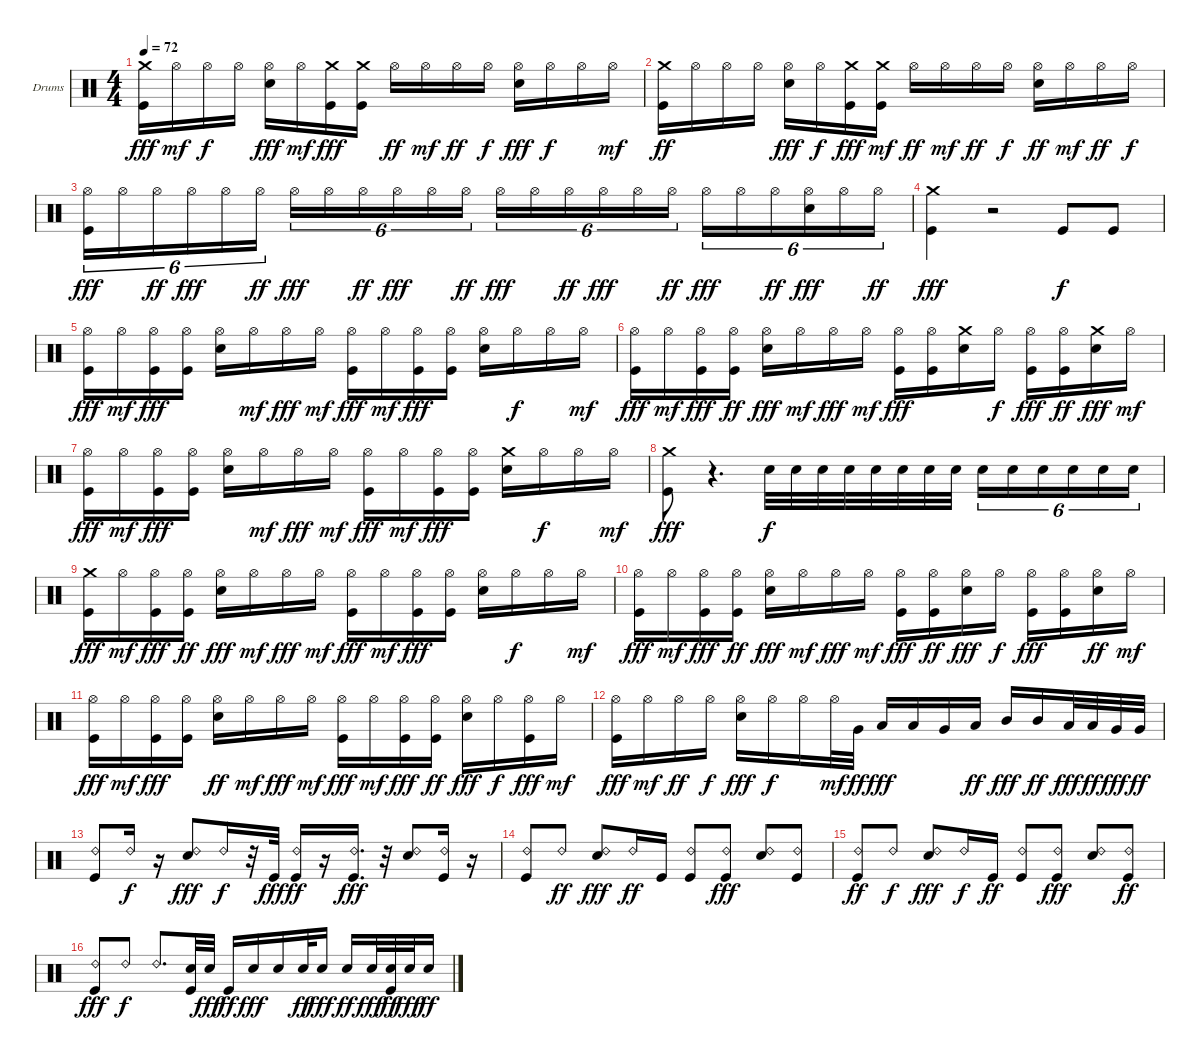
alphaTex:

\bracketExtendMode groupsimilarinstruments
\firstSystemTrackNameOrientation horizontal
\otherSystemsTrackNameOrientation horizontal
\track ("Drumkit" "Drums") {instrument percussion}
\staff {score}
\articulation defaults
\ts (4 4)
\tempo 72
\clef neutral
\ks c
("Kick (hit)" "Crash medium (hit)").16{dy fff} "Hi-Hat (open)".16{dy mf} "Hi-Hat (open)".16{dy f} "Hi-Hat (open)".16 ("Snare (hit) 2" "Hi-Hat (open)").16{dy fff} "Hi-Hat (open)".16{dy mf} ("Kick (hit)" "Crash medium (hit)").16{dy fff} ("Kick (hit)" "Crash medium (hit)").16 "Hi-Hat (open)".16{dy ff} "Hi-Hat (open)".16{dy mf} "Hi-Hat (open)".16{dy ff} "Hi-Hat (open)".16{dy f} ("Snare (hit) 2" "Hi-Hat (open)").16{dy fff} "Hi-Hat (open)".16{dy f} "Hi-Hat (open)".16 "Hi-Hat (open)".16{dy mf} |
("Crash medium (hit)" "Kick (hit)").16{dy ff} "Hi-Hat (open)".16 "Hi-Hat (open)".16 "Hi-Hat (open)".16 ("Snare (hit) 2" "Hi-Hat (open)").16{dy fff} "Hi-Hat (open)".16{dy f} ("Kick (hit)" "Crash medium (hit)").16{dy fff} ("Crash medium (hit)" "Kick (hit)").16{dy mf} "Hi-Hat (open)".16{dy ff} "Hi-Hat (open)".16{dy mf} "Hi-Hat (open)".16{dy ff} "Hi-Hat (open)".16{dy f} ("Hi-Hat (open)" "Snare (hit) 2").16{dy ff} "Hi-Hat (open)".16{dy mf} "Hi-Hat (open)".16{dy ff} "Hi-Hat (open)".16{dy f} |
("Kick (hit)" "Hi-Hat (open)").16{tu (6 4) dy fff} "Hi-Hat (open)".16{tu (6 4)} "Hi-Hat (open)".16{tu (6 4) dy ff} "Hi-Hat (open)".16{tu (6 4) dy fff} "Hi-Hat (open)".16{tu (6 4)} "Hi-Hat (open)".16{tu (6 4) dy ff} "Hi-Hat (open)".16{tu (6 4) dy fff} "Hi-Hat (open)".16{tu (6 4)} "Hi-Hat (open)".16{tu (6 4) dy ff} "Hi-Hat (open)".16{tu (6 4) dy fff} "Hi-Hat (open)".16{tu (6 4)} "Hi-Hat (open)".16{tu (6 4) dy ff} "Hi-Hat (open)".16{tu (6 4) dy fff} "Hi-Hat (open)".16{tu (6 4)} "Hi-Hat (open)".16{tu (6 4) dy ff} "Hi-Hat (open)".16{tu (6 4) dy fff} "Hi-Hat (open)".16{tu (6 4)} "Hi-Hat (open)".16{tu (6 4) dy ff} "Hi-Hat (open)".16{tu (6 4) dy fff} "Hi-Hat (open)".16{tu (6 4)} "Hi-Hat (open)".16{tu (6 4) dy ff} ("Hi-Hat (open)" "Snare (hit) 2").16{tu (6 4) dy fff} "Hi-Hat (open)".16{tu (6 4)} "Hi-Hat (open)".16{tu (6 4) dy ff} |
("Kick (hit)" "Crash medium (hit)").4{dy fff} r.2 "Kick (hit)".8{dy f} "Kick (hit)".8 |
("Kick (hit)" "Hi-Hat (open)").16{dy fff} "Hi-Hat (open)".16{dy mf} ("Kick (hit)" "Hi-Hat (open)").16{dy fff} ("Kick (hit)" "Hi-Hat (open)").16 ("Snare (hit) 2" "Hi-Hat (open)").16 "Hi-Hat (open)".16{dy mf} "Hi-Hat (open)".16{dy fff} "Hi-Hat (open)".16{dy mf} ("Kick (hit)" "Hi-Hat (open)").16{dy fff} "Hi-Hat (open)".16{dy mf} ("Kick (hit)" "Hi-Hat (open)").16{dy fff} ("Kick (hit)" "Hi-Hat (open)").16 ("Snare (hit) 2" "Hi-Hat (open)").16 "Hi-Hat (open)".16{dy f} "Hi-Hat (open)".16 "Hi-Hat (open)".16{dy mf} |
("Kick (hit)" "Hi-Hat (open)").16{dy fff} "Hi-Hat (open)".16{dy mf} ("Kick (hit)" "Hi-Hat (open)").16{dy fff} ("Kick (hit)" "Hi-Hat (open)").16{dy ff} ("Snare (hit) 2" "Hi-Hat (open)").16{dy fff} "Hi-Hat (open)".16{dy mf} "Hi-Hat (open)".16{dy fff} "Hi-Hat (open)".16{dy mf} ("Kick (hit)" "Hi-Hat (open)").16{dy fff} ("Kick (hit)" "Hi-Hat (open)").16 ("Snare (hit) 2" "Crash medium (hit)").16 "Hi-Hat (open)".16{dy f} ("Kick (hit)" "Hi-Hat (open)").16{dy fff} ("Kick (hit)" "Hi-Hat (open)").16{dy ff} ("Snare (hit) 2" "Crash medium (hit)").16{dy fff} "Hi-Hat (open)".16{dy mf} |
("Kick (hit)" "Hi-Hat (open)").16{dy fff} "Hi-Hat (open)".16{dy mf} ("Kick (hit)" "Hi-Hat (open)").16{dy fff} ("Kick (hit)" "Hi-Hat (open)").16 ("Snare (hit) 2" "Hi-Hat (open)").16 "Hi-Hat (open)".16{dy mf} "Hi-Hat (open)".16{dy fff} "Hi-Hat (open)".16{dy mf} ("Kick (hit)" "Hi-Hat (open)").16{dy fff} "Hi-Hat (open)".16{dy mf} ("Kick (hit)" "Hi-Hat (open)").16{dy fff} ("Kick (hit)" "Hi-Hat (open)").16 ("Snare (hit) 2" "Crash medium (hit)").16 "Hi-Hat (open)".16{dy f} "Hi-Hat (open)".16 "Hi-Hat (open)".16{dy mf} |
("Kick (hit)" "Crash medium (hit)").8{dy fff} r.4{d} "Snare (hit) 2".32{dy f} "Snare (hit) 2".32 "Snare (hit) 2".32 "Snare (hit) 2".32 "Snare (hit) 2".32 "Snare (hit) 2".32 "Snare (hit) 2".32 "Snare (hit) 2".32 "Snare (hit) 2".16{tu (6 4)} "Snare (hit) 2".16{tu (6 4)} "Snare (hit) 2".16{tu (6 4)} "Snare (hit) 2".16{tu (6 4)} "Snare (hit) 2".16{tu (6 4)} "Snare (hit) 2".16{tu (6 4)} |
("Kick (hit)" "Crash medium (hit)").16{dy fff} "Hi-Hat (open)".16{dy mf} ("Kick (hit)" "Hi-Hat (open)").16{dy fff} ("Kick (hit)" "Hi-Hat (open)").16{dy ff} ("Snare (hit) 2" "Hi-Hat (open)").16{dy fff} "Hi-Hat (open)".16{dy mf} "Hi-Hat (open)".16{dy fff} "Hi-Hat (open)".16{dy mf} ("Kick (hit)" "Hi-Hat (open)").16{dy fff} "Hi-Hat (open)".16{dy mf} ("Kick (hit)" "Hi-Hat (open)").16{dy fff} ("Kick (hit)" "Hi-Hat (open)").16 ("Snare (hit) 2" "Hi-Hat (open)").16 "Hi-Hat (open)".16{dy f} "Hi-Hat (open)".16 "Hi-Hat (open)".16{dy mf} |
("Kick (hit)" "Hi-Hat (open)").16{dy fff} "Hi-Hat (open)".16{dy mf} ("Kick (hit)" "Hi-Hat (open)").16{dy fff} ("Kick (hit)" "Hi-Hat (open)").16{dy ff} ("Snare (hit) 2" "Hi-Hat (open)").16{dy fff} "Hi-Hat (open)".16{dy mf} "Hi-Hat (open)".16{dy fff} "Hi-Hat (open)".16{dy mf} ("Kick (hit)" "Hi-Hat (open)").16{dy fff} ("Kick (hit)" "Hi-Hat (open)").16{dy ff} ("Snare (hit) 2" "Hi-Hat (open)").16{dy fff} "Hi-Hat (open)".16{dy f} ("Kick (hit)" "Hi-Hat (open)").16{dy fff} ("Kick (hit)" "Hi-Hat (open)").16 ("Snare (hit) 2" "Hi-Hat (open)").16{dy ff} "Hi-Hat (open)".16{dy mf} |
("Kick (hit)" "Hi-Hat (open)").16{dy fff} "Hi-Hat (open)".16{dy mf} ("Kick (hit)" "Hi-Hat (open)").16{dy fff} ("Kick (hit)" "Hi-Hat (open)").16 ("Snare (hit) 2" "Hi-Hat (open)").16{dy ff} "Hi-Hat (open)".16{dy mf} "Hi-Hat (open)".16{dy fff} "Hi-Hat (open)".16{dy mf} ("Kick (hit)" "Hi-Hat (open)").16{dy fff} "Hi-Hat (open)".16{dy mf} ("Kick (hit)" "Hi-Hat (open)").16{dy fff} ("Kick (hit)" "Hi-Hat (open)").16{dy ff} ("Snare (hit) 2" "Hi-Hat (open)").16{dy fff} "Hi-Hat (open)".16{dy f} ("Kick (hit)" "Hi-Hat (open)").16{dy fff} "Hi-Hat (open)".16{dy mf} |
("Kick (hit)" "Hi-Hat (open)").16{dy fff} "Hi-Hat (open)".16{dy mf} "Hi-Hat (open)".16{dy ff} "Hi-Hat (open)".16{dy f} ("Snare (hit) 2" "Hi-Hat (open)").16{dy fff} "Hi-Hat (open)".16{dy f} "Hi-Hat (open)".16 "Hi-Hat (open)".32{dy mf} "Very Low Tom (hit)".32{dy ff} "Low Tom (hit)".16{dy fff} "Low Tom (hit)".16 "Very Low Tom (hit)".16 "Low Tom (hit)".16{dy ff} "Mid Tom (hit)".16{dy fff} "Mid Tom (hit)".16{dy ff} "Low Tom (hit)".32{dy fff} "Low Tom (hit)".32{dy ff} "Very Low Tom (hit)".32{dy fff} "Very Low Tom (hit)".32{dy ff} |
("Ride (bell) 2" "Kick (hit)").8 "Ride (bell) 2".16{dy f} r.16 ("Snare (hit) 2" "Ride (bell) 2").8{dy fff} "Ride (bell) 2".16{dy f} r.32 "Kick (hit)".32{dy fff} ("Ride (bell) 2" "Kick (hit)").16{dy ff} r.16 ("Kick (hit)" "Ride (bell) 2").16{d dy fff} r.32 ("Snare (hit) 2" "Ride (bell) 2").8 ("Kick (hit)" "Ride (bell) 2").16 r.16 |
("Kick (hit)" "Ride (bell) 2").8 "Ride (bell) 2".8{dy ff} ("Snare (hit) 2" "Ride (bell) 2").8{dy fff} "Ride (bell) 2".16{dy ff} "Kick (hit)".16 ("Kick (hit)" "Ride (bell) 2").8 ("Kick (hit)" "Ride (bell) 2").8{dy fff} ("Snare (hit) 2" "Ride (bell) 2").8 ("Kick (hit)" "Ride (bell) 2").8 |
("Kick (hit)" "Ride (bell) 2").8{dy ff} "Ride (bell) 2".8{dy f} ("Snare (hit) 2" "Ride (bell) 2").8{dy fff} "Ride (bell) 2".16{dy f} "Kick (hit)".16{dy ff} ("Kick (hit)" "Ride (bell) 2").8 ("Kick (hit)" "Ride (bell) 2").8{dy fff} ("Snare (hit) 2" "Ride (bell) 2").8 ("Kick (hit)" "Ride (bell) 2").8{dy ff} |
("Kick (hit)" "Ride (bell) 2").8{dy fff} "Ride (bell) 2".8{dy f} "Ride (bell) 2".8{d} ("Kick (hit)" "Snare (hit) 2").32 "Snare (hit) 2".32{dy fff} "Kick (hit)".16{dy ff} "Snare (hit) 2".16{dy fff} "Snare (hit) 2".16 "Snare (hit) 2".32{dy ff} "Snare (hit) 2".16{dy fff} "Snare (hit) 2".16{dy ff} "Snare (hit) 2".32{dy fff} ("Kick (hit)" "Snare (hit) 2").32{dy ff} "Snare (hit) 2".32{dy fff} "Snare (hit) 2".16{dy ff}
